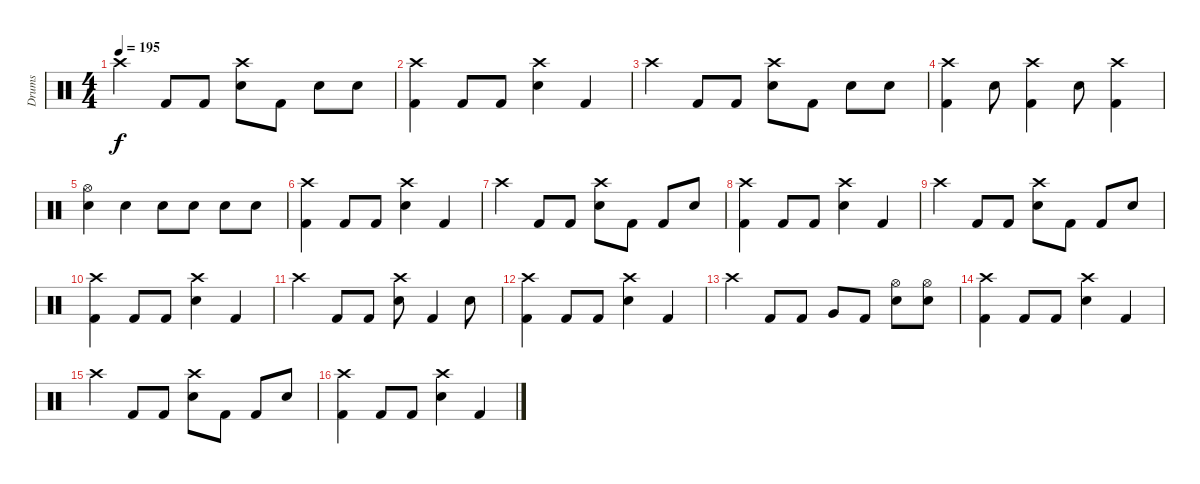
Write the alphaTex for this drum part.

\track ("Drums" "Drums") {instrument percussion}
\staff {score}
\articulation defaults
\ts (4 4)
\tempo 195
\clef neutral
\ks c "Crash high (hit)".4{dy f} "Kick (hit) 2".8 "Kick (hit) 2".8
("Crash high (hit)" "Electric Snare (hit)").8 "Kick (hit) 2".8 "Electric Snare (hit)".8 "Electric Snare (hit)".8 |
("Crash high (hit)" "Kick (hit) 2").4 "Kick (hit) 2".8 "Kick (hit) 2".8 ("Crash high (hit)" "Electric Snare (hit)").4 "Kick (hit) 2".4 |
"Crash high (hit)".4 "Kick (hit) 2".8 "Kick (hit) 2".8 ("Crash high (hit)" "Electric Snare (hit)").8 "Kick (hit) 2".8 "Electric Snare (hit)".8 "Electric Snare (hit)".8 |
("Crash high (hit)" "Kick (hit) 2").4 "Electric Snare (hit)".8 ("Crash high (hit)" "Kick (hit) 2").4 "Electric Snare (hit)".8 ("Crash high (hit)" "Kick (hit) 2").4 |
("Hi-Hat (open)" "Electric Snare (hit)").4 "Electric Snare (hit)".4 "Electric Snare (hit)".8 "Electric Snare (hit)".8 "Electric Snare (hit)".8 "Electric Snare (hit)".8 |
("Crash high (hit)" "Kick (hit) 2").4 "Kick (hit) 2".8 "Kick (hit) 2".8 ("Crash high (hit)" "Electric Snare (hit)").4 "Kick (hit) 2".4 |
"Crash high (hit)".4 "Kick (hit) 2".8 "Kick (hit) 2".8 ("Crash high (hit)" "Electric Snare (hit)").8 "Kick (hit) 2".8 "Kick (hit) 2".8 "Electric Snare (hit)".8 |
("Crash high (hit)" "Kick (hit) 2").4 "Kick (hit) 2".8 "Kick (hit) 2".8 ("Crash high (hit)" "Electric Snare (hit)").4 "Kick (hit) 2".4 |
"Crash high (hit)".4 "Kick (hit) 2".8 "Kick (hit) 2".8 ("Crash high (hit)" "Electric Snare (hit)").8 "Kick (hit) 2".8 "Kick (hit) 2".8 "Electric Snare (hit)".8 |
("Crash high (hit)" "Kick (hit) 2").4 "Kick (hit) 2".8 "Kick (hit) 2".8 ("Crash high (hit)" "Electric Snare (hit)").4 "Kick (hit) 2".4 |
"Crash high (hit)".4 "Kick (hit) 2".8 "Kick (hit) 2".8 ("Crash high (hit)" "Electric Snare (hit)").8 "Kick (hit) 2".4 "Electric Snare (hit)".8 |
("Crash high (hit)" "Kick (hit) 2").4 "Kick (hit) 2".8 "Kick (hit) 2".8 ("Crash high (hit)" "Electric Snare (hit)").4 "Kick (hit) 2".4 |
"Crash high (hit)".4 "Kick (hit) 2".8 "Kick (hit) 2".8 "Very Low Tom (hit)".8 "Kick (hit) 2".8 ("Hi-Hat (open)" "Electric Snare (hit)").8 ("Hi-Hat (open)" "Electric Snare (hit)").8 |
("Crash high (hit)" "Kick (hit) 2").4 "Kick (hit) 2".8 "Kick (hit) 2".8 ("Crash high (hit)" "Electric Snare (hit)").4 "Kick (hit) 2".4 |
"Crash high (hit)".4 "Kick (hit) 2".8 "Kick (hit) 2".8 ("Crash high (hit)" "Electric Snare (hit)").8 "Kick (hit) 2".8 "Kick (hit) 2".8 "Electric Snare (hit)".8 |
("Crash high (hit)" "Kick (hit) 2").4 "Kick (hit) 2".8 "Kick (hit) 2".8 ("Crash high (hit)" "Electric Snare (hit)").4 "Kick (hit) 2".4
